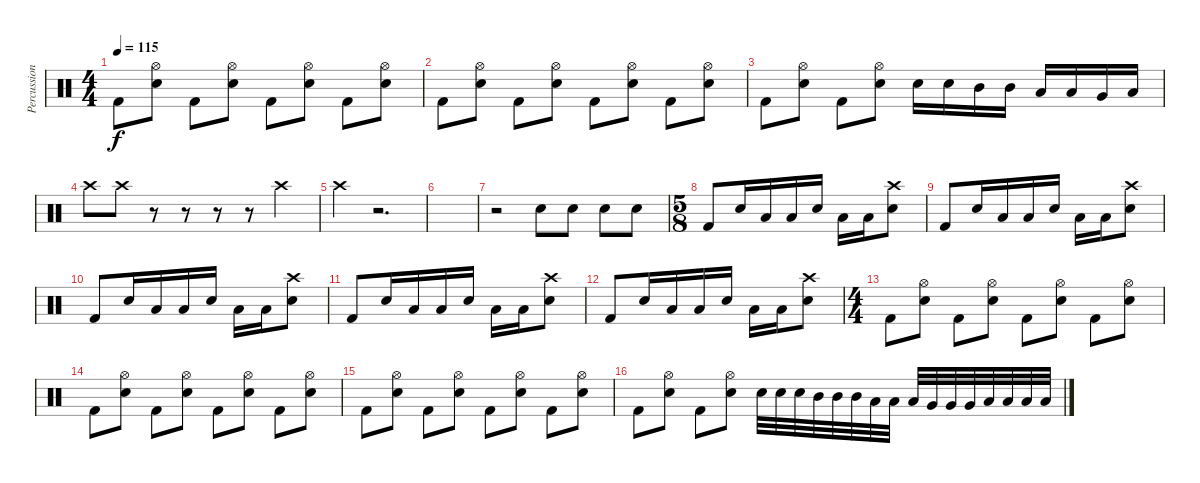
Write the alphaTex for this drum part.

\track ("Percussion" "Percussion") {instrument percussion}
\staff {score}
\articulation defaults
\ts (4 4)
\tempo 115
\clef neutral
\ks c "Kick (hit) 2".8{dy f}
("Hi-Hat (open)" "Electric Snare (hit)").8 "Kick (hit) 2".8 ("Hi-Hat (open)" "Electric Snare (hit)").8 "Kick (hit) 2".8 ("Hi-Hat (open)" "Electric Snare (hit)").8 "Kick (hit) 2".8 ("Hi-Hat (open)" "Electric Snare (hit)").8 |
"Kick (hit) 2".8 ("Hi-Hat (open)" "Electric Snare (hit)").8 "Kick (hit) 2".8 ("Hi-Hat (open)" "Electric Snare (hit)").8 "Kick (hit) 2".8 ("Hi-Hat (open)" "Electric Snare (hit)").8 "Kick (hit) 2".8 ("Hi-Hat (open)" "Electric Snare (hit)").8 |
"Kick (hit) 2".8 ("Hi-Hat (open)" "Electric Snare (hit)").8 "Kick (hit) 2".8 ("Hi-Hat (open)" "Electric Snare (hit)").8 "Electric Snare (hit)".16 "Electric Snare (hit)".16 "Mid Tom (hit)".16 "Mid Tom (hit)".16 "Low Tom (hit)".16 "Low Tom (hit)".16 "Very Low Tom (hit)".16 "Low Floor Tom (hit)".16 |
"Crash high (hit)".8 "Crash high (hit)".8 r.8 r.8 r.8 r.8 "Crash high (hit)".4 |
"Crash high (hit)".4 r.2{d} |
|
r.2 "Electric Snare (hit)".8 "Electric Snare (hit)".8 "Electric Snare (hit)".8 "Electric Snare (hit)".8 |
\ts (5 8)
"Kick (hit) 2".8 "Electric Snare (hit)".16 "Low Tom (hit)".16 "Low Tom (hit)".16 "Electric Snare (hit)".16 "Low Tom (hit)".16 "Low Tom (hit)".16 ("Crash high (hit)" "Electric Snare (hit)").8 |
"Kick (hit) 2".8 "Electric Snare (hit)".16 "Low Tom (hit)".16 "Low Tom (hit)".16 "Electric Snare (hit)".16 "Low Tom (hit)".16 "Low Tom (hit)".16 ("Crash high (hit)" "Electric Snare (hit)").8 |
"Kick (hit) 2".8 "Electric Snare (hit)".16 "Low Tom (hit)".16 "Low Tom (hit)".16 "Electric Snare (hit)".16 "Low Tom (hit)".16 "Low Tom (hit)".16 ("Crash high (hit)" "Electric Snare (hit)").8 |
"Kick (hit) 2".8 "Electric Snare (hit)".16 "Low Tom (hit)".16 "Low Tom (hit)".16 "Electric Snare (hit)".16 "Low Tom (hit)".16 "Low Tom (hit)".16 ("Crash high (hit)" "Electric Snare (hit)").8 |
"Kick (hit) 2".8 "Electric Snare (hit)".16 "Low Tom (hit)".16 "Low Tom (hit)".16 "Electric Snare (hit)".16 "Low Tom (hit)".16 "Low Tom (hit)".16 ("Crash high (hit)" "Electric Snare (hit)").8 |
\ts (4 4)
"Kick (hit) 2".8 ("Hi-Hat (open)" "Electric Snare (hit)").8 "Kick (hit) 2".8 ("Hi-Hat (open)" "Electric Snare (hit)").8 "Kick (hit) 2".8 ("Hi-Hat (open)" "Electric Snare (hit)").8 "Kick (hit) 2".8 ("Hi-Hat (open)" "Electric Snare (hit)").8 |
"Kick (hit) 2".8 ("Hi-Hat (open)" "Electric Snare (hit)").8 "Kick (hit) 2".8 ("Hi-Hat (open)" "Electric Snare (hit)").8 "Kick (hit) 2".8 ("Hi-Hat (open)" "Electric Snare (hit)").8 "Kick (hit) 2".8 ("Hi-Hat (open)" "Electric Snare (hit)").8 |
"Kick (hit) 2".8 ("Hi-Hat (open)" "Electric Snare (hit)").8 "Kick (hit) 2".8 ("Hi-Hat (open)" "Electric Snare (hit)").8 "Kick (hit) 2".8 ("Hi-Hat (open)" "Electric Snare (hit)").8 "Kick (hit) 2".8 ("Hi-Hat (open)" "Electric Snare (hit)").8 |
"Kick (hit) 2".8 ("Hi-Hat (open)" "Electric Snare (hit)").8 "Kick (hit) 2".8 ("Hi-Hat (open)" "Electric Snare (hit)").8 "Electric Snare (hit)".32 "Electric Snare (hit)".32 "Electric Snare (hit)".32 "Mid Tom (hit)".32 "Mid Tom (hit)".32 "Mid Tom (hit)".32 "Low Tom (hit)".32 "Low Tom (hit)".32 "Low Tom (hit)".32 "Very Low Tom (hit)".32 "Very Low Tom (hit)".32 "Very Low Tom (hit)".32 "Low Floor Tom (hit)".32 "Low Floor Tom (hit)".32 "Low Floor Tom (hit)".32 "Low Floor Tom (hit)".32
